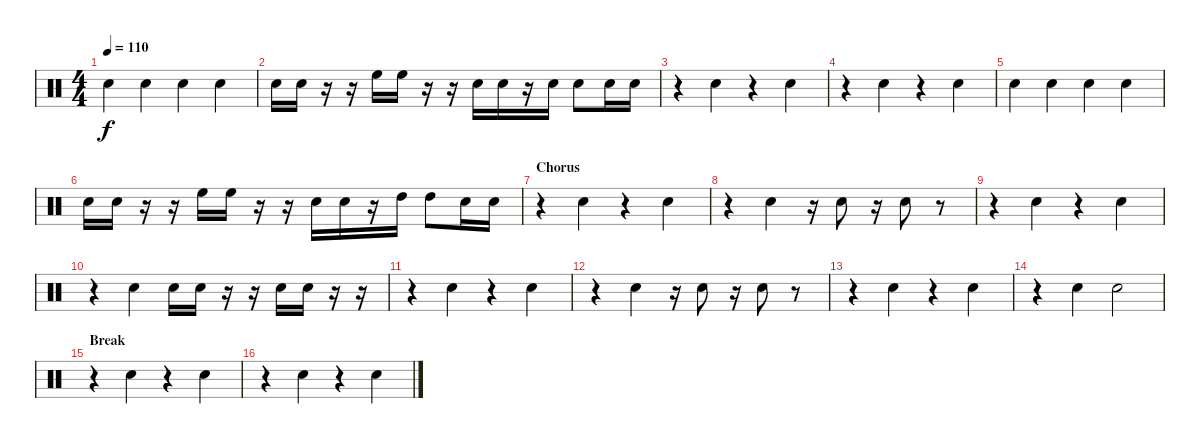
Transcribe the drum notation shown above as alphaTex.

\track "" {instrument percussion}
\staff {score}
\articulation defaults
\ts (4 4)
\tempo 110
\clef neutral
\ks c "Electric Snare (hit)".4{dy f} "Electric Snare (hit)".4 "Electric Snare (hit)".4 "Electric Snare (hit)".4
|
"Electric Snare (hit)".16 "Electric Snare (hit)".16 r.16 r.16 "High Floor Tom (hit)".16 "High Floor Tom (hit)".16 r.16 r.16 "Electric Snare (hit)".16 "Electric Snare (hit)".16 r.16 "Electric Snare (hit)".16 "Electric Snare (hit)".8 "Electric Snare (hit)".16 "Electric Snare (hit)".16 |
r.4 "Electric Snare (hit)".4 r.4 "Electric Snare (hit)".4 |
r.4 "Electric Snare (hit)".4 r.4 "Electric Snare (hit)".4 |
"Electric Snare (hit)".4 "Electric Snare (hit)".4 "Electric Snare (hit)".4 "Electric Snare (hit)".4 |
"Electric Snare (hit)".16 "Electric Snare (hit)".16 r.16 r.16 "High Floor Tom (hit)".16 "High Floor Tom (hit)".16 r.16 r.16 "Electric Snare (hit)".16 "Electric Snare (hit)".16 r.16 "High Tom (hit)".16 "High Tom (hit)".8 "Electric Snare (hit)".16 "Electric Snare (hit)".16 |
\section ("" "Chorus")
r.4 "Electric Snare (hit)".4 r.4 "Electric Snare (hit)".4 |
r.4 "Electric Snare (hit)".4 r.16 "Electric Snare (hit)".8 r.16 "Electric Snare (hit)".8 r.8 |
r.4 "Electric Snare (hit)".4 r.4 "Electric Snare (hit)".4 |
r.4 "Electric Snare (hit)".4 "Electric Snare (hit)".16 "Electric Snare (hit)".16 r.16 r.16 "Electric Snare (hit)".16 "Electric Snare (hit)".16 r.16 r.16 |
r.4 "Electric Snare (hit)".4 r.4 "Electric Snare (hit)".4 |
r.4 "Electric Snare (hit)".4 r.16 "Electric Snare (hit)".8 r.16 "Electric Snare (hit)".8 r.8 |
r.4 "Electric Snare (hit)".4 r.4 "Electric Snare (hit)".4 |
r.4 "Electric Snare (hit)".4 "Electric Snare (hit)".2 |
\section ("" "Break")
r.4 "Electric Snare (hit)".4 r.4 "Electric Snare (hit)".4 |
r.4 "Electric Snare (hit)".4 r.4 "Electric Snare (hit)".4
